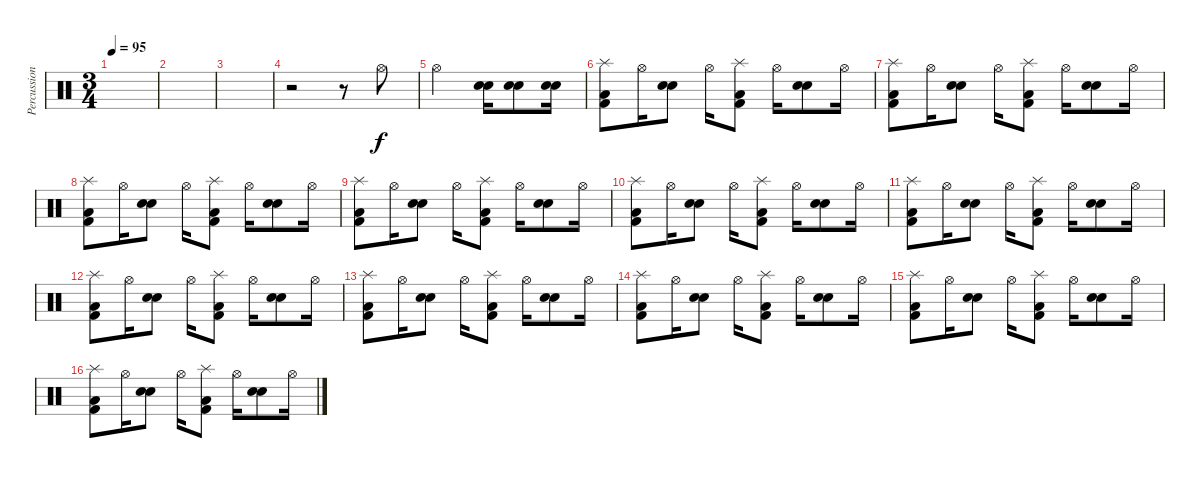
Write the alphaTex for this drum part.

\track ("Percussions" "Percussion") {instrument percussion}
\staff {score}
\articulation defaults
\ts (3 4)
\tempo 95
\clef neutral
\ks c
|
|
|
r.2 r.8 "Hi-Hat (open)".8 |
"Hi-Hat (open)".2 ("Snare (hit) 2" "Electric Snare (hit)").16 ("Snare (hit) 2" "Electric Snare (hit)").8 ("Snare (hit) 2" "Electric Snare (hit)").16 |
("Splash (hit)" "Kick (hit) 2" "Low Floor Tom (hit)").8 "Hi-Hat (open)".16 ("Snare (hit) 2" "Electric Snare (hit)").8 "Hi-Hat (open)".16 ("Splash (hit)" "Kick (hit) 2" "Low Floor Tom (hit)").8 "Hi-Hat (open)".16 ("Snare (hit) 2" "Electric Snare (hit)").8 "Hi-Hat (open)".16 |
("Splash (hit)" "Kick (hit) 2" "Low Floor Tom (hit)").8 "Hi-Hat (open)".16 ("Snare (hit) 2" "Electric Snare (hit)").8 "Hi-Hat (open)".16 ("Splash (hit)" "Kick (hit) 2" "Low Floor Tom (hit)").8 "Hi-Hat (open)".16 ("Snare (hit) 2" "Electric Snare (hit)").8 "Hi-Hat (open)".16 |
("Splash (hit)" "Kick (hit) 2" "Low Floor Tom (hit)").8 "Hi-Hat (open)".16 ("Snare (hit) 2" "Electric Snare (hit)").8 "Hi-Hat (open)".16 ("Splash (hit)" "Kick (hit) 2" "Low Floor Tom (hit)").8 "Hi-Hat (open)".16 ("Snare (hit) 2" "Electric Snare (hit)").8 "Hi-Hat (open)".16 |
("Splash (hit)" "Kick (hit) 2" "Low Floor Tom (hit)").8 "Hi-Hat (open)".16 ("Snare (hit) 2" "Electric Snare (hit)").8 "Hi-Hat (open)".16 ("Splash (hit)" "Kick (hit) 2" "Low Floor Tom (hit)").8 "Hi-Hat (open)".16 ("Snare (hit) 2" "Electric Snare (hit)").8 "Hi-Hat (open)".16 |
("Splash (hit)" "Kick (hit) 2" "Low Floor Tom (hit)").8 "Hi-Hat (open)".16 ("Snare (hit) 2" "Electric Snare (hit)").8 "Hi-Hat (open)".16 ("Splash (hit)" "Kick (hit) 2" "Low Floor Tom (hit)").8 "Hi-Hat (open)".16 ("Snare (hit) 2" "Electric Snare (hit)").8 "Hi-Hat (open)".16 |
("Splash (hit)" "Kick (hit) 2" "Low Floor Tom (hit)").8 "Hi-Hat (open)".16 ("Snare (hit) 2" "Electric Snare (hit)").8 "Hi-Hat (open)".16 ("Splash (hit)" "Kick (hit) 2" "Low Floor Tom (hit)").8 "Hi-Hat (open)".16 ("Snare (hit) 2" "Electric Snare (hit)").8 "Hi-Hat (open)".16 |
("Splash (hit)" "Kick (hit) 2" "Low Floor Tom (hit)").8 "Hi-Hat (open)".16 ("Snare (hit) 2" "Electric Snare (hit)").8 "Hi-Hat (open)".16 ("Splash (hit)" "Kick (hit) 2" "Low Floor Tom (hit)").8 "Hi-Hat (open)".16 ("Snare (hit) 2" "Electric Snare (hit)").8 "Hi-Hat (open)".16 |
("Splash (hit)" "Kick (hit) 2" "Low Floor Tom (hit)").8 "Hi-Hat (open)".16 ("Snare (hit) 2" "Electric Snare (hit)").8 "Hi-Hat (open)".16 ("Splash (hit)" "Kick (hit) 2" "Low Floor Tom (hit)").8 "Hi-Hat (open)".16 ("Snare (hit) 2" "Electric Snare (hit)").8 "Hi-Hat (open)".16 |
("Splash (hit)" "Kick (hit) 2" "Low Floor Tom (hit)").8 "Hi-Hat (open)".16 ("Snare (hit) 2" "Electric Snare (hit)").8 "Hi-Hat (open)".16 ("Splash (hit)" "Kick (hit) 2" "Low Floor Tom (hit)").8 "Hi-Hat (open)".16 ("Snare (hit) 2" "Electric Snare (hit)").8 "Hi-Hat (open)".16 |
("Splash (hit)" "Kick (hit) 2" "Low Floor Tom (hit)").8 "Hi-Hat (open)".16 ("Snare (hit) 2" "Electric Snare (hit)").8 "Hi-Hat (open)".16 ("Splash (hit)" "Kick (hit) 2" "Low Floor Tom (hit)").8 "Hi-Hat (open)".16 ("Snare (hit) 2" "Electric Snare (hit)").8 "Hi-Hat (open)".16 |
("Splash (hit)" "Kick (hit) 2" "Low Floor Tom (hit)").8 "Hi-Hat (open)".16 ("Snare (hit) 2" "Electric Snare (hit)").8 "Hi-Hat (open)".16 ("Splash (hit)" "Kick (hit) 2" "Low Floor Tom (hit)").8 "Hi-Hat (open)".16 ("Snare (hit) 2" "Electric Snare (hit)").8 "Hi-Hat (open)".16
